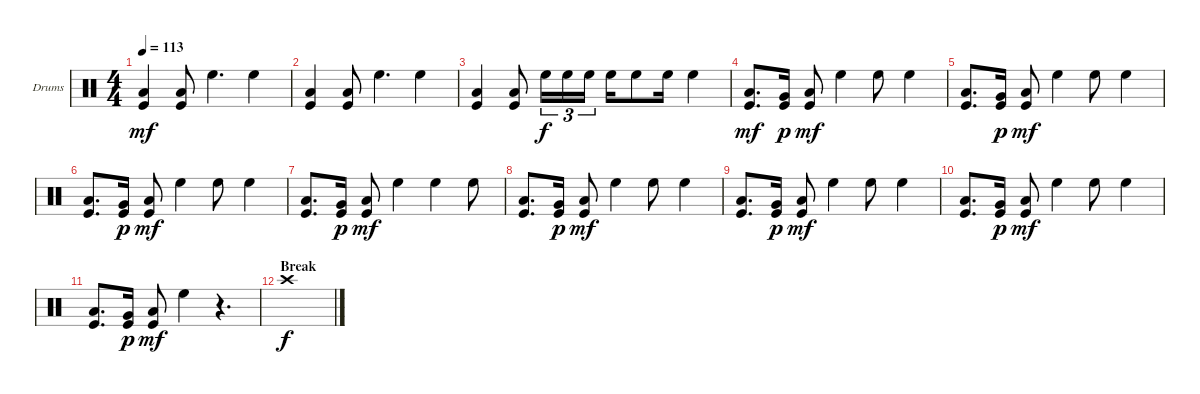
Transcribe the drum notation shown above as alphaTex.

\defaultSystemsLayout 4
\bracketExtendMode groupsimilarinstruments
\firstSystemTrackNameOrientation horizontal
\otherSystemsTrackNameOrientation horizontal
\track ("Drumkit" "Drums") {instrument percussion}
\staff {score}
\articulation defaults
\ts (4 4)
\tempo 113
\clef neutral
\scale
0.333333
\ks c
("Kick (hit)" "Low Tom (hit)").4{dy mf} ("Kick (hit)" "Low Tom (hit)").8 "High Floor Tom (hit)".4{d} "High Floor Tom (hit)".4 |
\scale
0.333333 ("Kick (hit)" "Low Tom (hit)").4 ("Kick (hit)" "Low Tom (hit)").8 "High Floor Tom (hit)".4{d} "High Floor Tom (hit)".4 |
\scale
0.333333 ("Kick (hit)" "Low Tom (hit)").4 ("Kick (hit)" "Low Tom (hit)").8 "High Floor Tom (hit)".16{tu (3 2) dy f} "High Floor Tom (hit)".16{tu (3 2)} "High Floor Tom (hit)".16{tu (3 2)} "High Floor Tom (hit)".16 "High Floor Tom (hit)".8 "High Floor Tom (hit)".16 "High Floor Tom (hit)".4 |
\scale
0.333333 ("Kick (hit)" "Low Tom (hit)").8{d dy mf} ("Very Low Tom (hit)" "Kick (hit)").16{dy p} ("Kick (hit)" "Low Tom (hit)").8{dy mf} "High Floor Tom (hit)".4 "High Floor Tom (hit)".8 "High Floor Tom (hit)".4 |
\scale
0.333333 ("Kick (hit)" "Low Tom (hit)").8{d} ("Very Low Tom (hit)" "Kick (hit)").16{dy p} ("Kick (hit)" "Low Tom (hit)").8{dy mf} "High Floor Tom (hit)".4 "High Floor Tom (hit)".8 "High Floor Tom (hit)".4 |
\scale
0.333333 ("Kick (hit)" "Low Tom (hit)").8{d} ("Very Low Tom (hit)" "Kick (hit)").16{dy p} ("Kick (hit)" "Low Tom (hit)").8{dy mf} "High Floor Tom (hit)".4 "High Floor Tom (hit)".8 "High Floor Tom (hit)".4 |
\scale
0.333333 ("Kick (hit)" "Low Tom (hit)").8{d} ("Very Low Tom (hit)" "Kick (hit)").16{dy p} ("Kick (hit)" "Low Tom (hit)").8{dy mf} "High Floor Tom (hit)".4 "High Floor Tom (hit)".4 "High Floor Tom (hit)".8 |
\scale
0.333333 ("Kick (hit)" "Low Tom (hit)").8{d} ("Very Low Tom (hit)" "Kick (hit)").16{dy p} ("Kick (hit)" "Low Tom (hit)").8{dy mf} "High Floor Tom (hit)".4 "High Floor Tom (hit)".8 "High Floor Tom (hit)".4 |
\scale
0.333333 ("Kick (hit)" "Low Tom (hit)").8{d} ("Very Low Tom (hit)" "Kick (hit)").16{dy p} ("Kick (hit)" "Low Tom (hit)").8{dy mf} "High Floor Tom (hit)".4 "High Floor Tom (hit)".8 "High Floor Tom (hit)".4 |
\scale
0.333333 ("Kick (hit)" "Low Tom (hit)").8{d} ("Very Low Tom (hit)" "Kick (hit)").16{dy p} ("Kick (hit)" "Low Tom (hit)").8{dy mf} "High Floor Tom (hit)".4 "High Floor Tom (hit)".8 "High Floor Tom (hit)".4 |
\scale
0.333333 ("Kick (hit)" "Low Tom (hit)").8{d} ("Very Low Tom (hit)" "Kick (hit)").16{dy p} ("Kick (hit)" "Low Tom (hit)").8{dy mf} "High Floor Tom (hit)".4 r.4{d} |
\section ("" "Break")
\scale
0.333333 "Crash high (hit)".1{dy f} |
\scale
0.333333 |
\scale
0.333333 |
\scale
0.333333 |
\scale
0.333333
